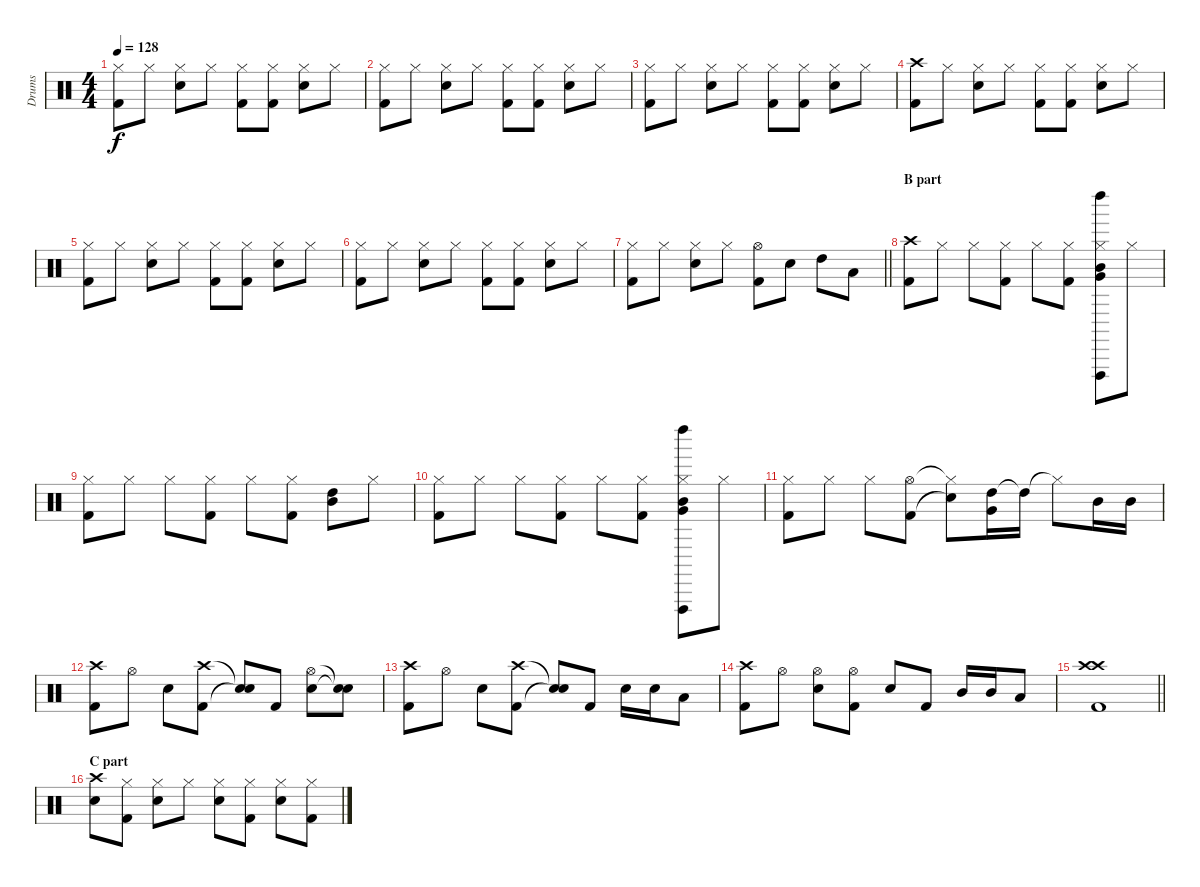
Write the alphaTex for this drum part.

\track ("Drums" "Drums") {instrument percussion}
\staff {score}
\articulation defaults
\ts (4 4)
\tempo 128
\clef neutral
\ks c
("Hi-Hat (closed)" "Kick (hit) 2").8{dy f} "Hi-Hat (closed)".8 ("Hi-Hat (closed)" "Snare (hit) 2").8 "Hi-Hat (closed)".8 ("Hi-Hat (closed)" "Kick (hit) 2").8 ("Hi-Hat (closed)" "Kick (hit) 2").8 ("Hi-Hat (closed)" "Snare (hit) 2").8 "Hi-Hat (closed)".8 |
("Hi-Hat (closed)" "Kick (hit) 2").8 "Hi-Hat (closed)".8 ("Hi-Hat (closed)" "Snare (hit) 2").8 "Hi-Hat (closed)".8 ("Hi-Hat (closed)" "Kick (hit) 2").8 ("Hi-Hat (closed)" "Kick (hit) 2").8 ("Hi-Hat (closed)" "Snare (hit) 2").8 "Hi-Hat (closed)".8 |
("Hi-Hat (closed)" "Kick (hit) 2").8 "Hi-Hat (closed)".8 ("Hi-Hat (closed)" "Snare (hit) 2").8 "Hi-Hat (closed)".8 ("Hi-Hat (closed)" "Kick (hit) 2").8 ("Hi-Hat (closed)" "Kick (hit) 2").8 ("Hi-Hat (closed)" "Snare (hit) 2").8 "Hi-Hat (closed)".8 |
("Crash high (hit)" "Kick (hit) 2").8 "Hi-Hat (closed)".8 ("Hi-Hat (closed)" "Snare (hit) 2").8 "Hi-Hat (closed)".8 ("Hi-Hat (closed)" "Kick (hit) 2").8 ("Hi-Hat (closed)" "Kick (hit) 2").8 ("Hi-Hat (closed)" "Snare (hit) 2").8 "Hi-Hat (closed)".8 |
("Hi-Hat (closed)" "Kick (hit) 2").8 "Hi-Hat (closed)".8 ("Hi-Hat (closed)" "Snare (hit) 2").8 "Hi-Hat (closed)".8 ("Hi-Hat (closed)" "Kick (hit) 2").8 ("Hi-Hat (closed)" "Kick (hit) 2").8 ("Hi-Hat (closed)" "Snare (hit) 2").8 "Hi-Hat (closed)".8 |
("Hi-Hat (closed)" "Kick (hit) 2").8 "Hi-Hat (closed)".8 ("Hi-Hat (closed)" "Snare (hit) 2").8 "Hi-Hat (closed)".8 ("Hi-Hat (closed)" "Kick (hit) 2").8 ("Hi-Hat (closed)" "Kick (hit) 2").8 ("Hi-Hat (closed)" "Snare (hit) 2").8 "Hi-Hat (closed)".8 |
\barLineRight lightlight
("Hi-Hat (closed)" "Kick (hit) 2").8 "Hi-Hat (closed)".8 ("Hi-Hat (closed)" "Snare (hit) 2").8 "Hi-Hat (closed)".8 ("Hi-Hat (open)" "Kick (hit) 2").8 "Snare (hit) 2".8 "High Tom (hit)".8 "Low Tom (hit)".8 |
\section ("" "B part")
("Crash high (hit)" "Kick (hit) 2").8 "Hi-Hat (closed)".8 "Hi-Hat (closed)".8 ("Hi-Hat (closed)" "Kick (hit) 2").8 "Hi-Hat (closed)".8 ("Hi-Hat (closed)" "Kick (hit) 2").8 ("Vibraslap (hit)" "Hi-Hat (closed)" "Mid Tom (hit)" "Very Low Tom (hit)" "Left Maraca (hit)").8 "Hi-Hat (closed)".8 |
("Hi-Hat (closed)" "Kick (hit) 2").8 "Hi-Hat (closed)".8 "Hi-Hat (closed)".8 ("Hi-Hat (closed)" "Kick (hit) 2").8 "Hi-Hat (closed)".8 ("Hi-Hat (closed)" "Kick (hit) 2").8 ("High Tom (hit)" "Mid Tom (hit)").8 "Hi-Hat (closed)".8 |
("Hi-Hat (closed)" "Kick (hit) 2").8 "Hi-Hat (closed)".8 "Hi-Hat (closed)".8 ("Hi-Hat (closed)" "Kick (hit) 2").8 "Hi-Hat (closed)".8 ("Hi-Hat (closed)" "Kick (hit) 2").8 ("Vibraslap (hit)" "Hi-Hat (closed)" "Mid Tom (hit)" "Very Low Tom (hit)" "Left Maraca (hit)").8 "Hi-Hat (closed)".8 |
("Hi-Hat (closed)" "Kick (hit) 2").8 "Hi-Hat (closed)".8 "Hi-Hat (closed)".8 ("Hi-Hat (open)" "Kick (hit) 2").8 ("Hi-Hat (closed)"{t} "Snare (hit)"{t}).8 ("High Tom (hit)" "Very Low Tom (hit)").16 "High Tom (hit)"{t}.16 "Hi-Hat (closed)"{t}.8 "Mid Tom (hit)".16 "Mid Tom (hit)".16 |
("Crash high (hit)" "Kick (hit) 2").8 "Hi-Hat (open)".8 "Snare (hit) 2".8 ("Crash high (hit)" "Kick (hit) 2").8 ("Snare (hit)"{t} "Snare (hit)"{t}).8 "Kick (hit) 2".8 ("Hi-Hat (open)" "Snare (hit) 2").8 ("Snare (hit)"{t} "Snare (hit)"{t}).8 |
("Crash high (hit)" "Kick (hit) 2").8 "Hi-Hat (open)".8 "Snare (hit) 2".8 ("Crash high (hit)" "Kick (hit) 2").8 ("Snare (hit)"{t} "Snare (hit)"{t}).8 "Kick (hit) 2".8 "Snare (hit) 2".16 "Snare (hit) 2".16 "Low Tom (hit)".8 |
("Crash high (hit)" "Kick (hit) 2").8 "Hi-Hat (open)".8 ("Hi-Hat (open)" "Snare (hit) 2").8 ("Hi-Hat (open)" "Kick (hit) 2").8 "Snare (hit) 2".8 "Kick (hit) 2".8 "Mid Tom (hit)".16 "Mid Tom (hit)".16 "Low Tom (hit)".8 |
\barLineRight lightlight
("Crash high (hit)" "Crash high (hit)" "Kick (hit) 2").1 |
\section ("" "C part")
("Crash high (hit)" "Snare (hit) 2").8 ("Hi-Hat (closed)" "Kick (hit) 2").8 ("Hi-Hat (closed)" "Snare (hit) 2").8 "Hi-Hat (closed)".8 ("Hi-Hat (closed)" "Snare (hit) 2").8 ("Hi-Hat (closed)" "Kick (hit) 2").8 ("Hi-Hat (closed)" "Snare (hit) 2").8 ("Hi-Hat (closed)" "Kick (hit) 2").8
